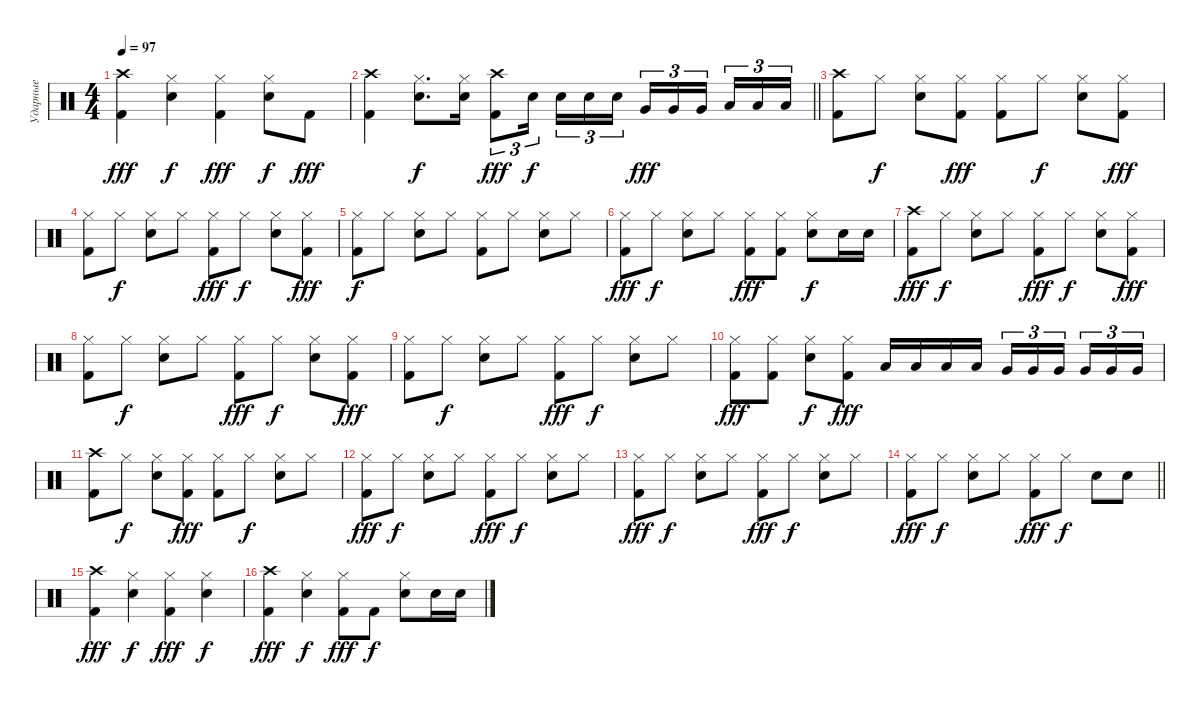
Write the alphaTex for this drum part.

\track ("Ударные" "Ударные") {instrument percussion}
\staff {score}
\articulation defaults
\ts (4 4)
\tempo 97
\clef neutral
\ks c
("Kick (hit) 2" "Crash high (hit)").4{dy fff} ("Snare (hit) 2" "Hi-Hat (closed)").4{dy f} ("Kick (hit) 2" "Hi-Hat (closed)").4{dy fff} ("Snare (hit) 2" "Hi-Hat (closed)").8{dy f} "Kick (hit) 2".8{dy fff} |
\barLineRight lightlight
("Kick (hit) 2" "Crash high (hit)").4 ("Snare (hit) 2" "Hi-Hat (closed)").8{d dy f} ("Snare (hit) 2" "Hi-Hat (closed)").16 ("Kick (hit) 2" "Crash high (hit)").8{tu (3 2) dy fff} "Snare (hit) 2".16{tu (3 2) dy f beam splitsecondary} "Snare (hit) 2".16{tu (3 2)} "Snare (hit) 2".16{tu (3 2)} "Snare (hit) 2".16{tu (3 2)} "Very Low Tom (hit)".16{tu (3 2) dy fff} "Very Low Tom (hit)".16{tu (3 2)} "Very Low Tom (hit)".16{tu (3 2) beam splitsecondary} "Low Floor Tom (hit)".16{tu (3 2)} "Low Floor Tom (hit)".16{tu (3 2)} "Low Floor Tom (hit)".16{tu (3 2)} |
("Kick (hit) 2" "Crash high (hit)").8 "Hi-Hat (closed)".8{dy f} ("Snare (hit) 2" "Hi-Hat (closed)").8 ("Kick (hit) 2" "Hi-Hat (closed)").8{dy fff} ("Kick (hit) 2" "Hi-Hat (closed)").8 "Hi-Hat (closed)".8{dy f} ("Snare (hit) 2" "Hi-Hat (closed)").8 ("Kick (hit) 2" "Hi-Hat (closed)").8{dy fff} |
("Kick (hit) 2" "Hi-Hat (closed)").8 "Hi-Hat (closed)".8{dy f} ("Snare (hit) 2" "Hi-Hat (closed)").8 "Hi-Hat (closed)".8 ("Kick (hit) 2" "Hi-Hat (closed)").8{dy fff} "Hi-Hat (closed)".8{dy f} ("Snare (hit) 2" "Hi-Hat (closed)").8 ("Kick (hit) 2" "Hi-Hat (closed)").8{dy fff} |
("Kick (hit) 2" "Hi-Hat (closed)").8{dy f} "Hi-Hat (closed)".8 ("Snare (hit) 2" "Hi-Hat (closed)").8 "Hi-Hat (closed)".8 ("Kick (hit) 2" "Hi-Hat (closed)").8 "Hi-Hat (closed)".8 ("Snare (hit) 2" "Hi-Hat (closed)").8 "Hi-Hat (closed)".8 |
("Kick (hit) 2" "Hi-Hat (closed)").8{dy fff} "Hi-Hat (closed)".8{dy f} ("Snare (hit) 2" "Hi-Hat (closed)").8 "Hi-Hat (closed)".8 ("Kick (hit) 2" "Hi-Hat (closed)").8{dy fff} ("Kick (hit) 2" "Hi-Hat (closed)").8 ("Snare (hit) 2" "Hi-Hat (closed)").8{dy f} "Snare (hit) 2".16 "Snare (hit) 2".16 |
("Kick (hit) 2" "Crash high (hit)").8{dy fff} "Hi-Hat (closed)".8{dy f} ("Snare (hit) 2" "Hi-Hat (closed)").8 "Hi-Hat (closed)".8 ("Kick (hit) 2" "Hi-Hat (closed)").8{dy fff} "Hi-Hat (closed)".8{dy f} ("Snare (hit) 2" "Hi-Hat (closed)").8 ("Kick (hit) 2" "Hi-Hat (closed)").8{dy fff} |
("Kick (hit) 2" "Hi-Hat (closed)").8 "Hi-Hat (closed)".8{dy f} ("Snare (hit) 2" "Hi-Hat (closed)").8 "Hi-Hat (closed)".8 ("Kick (hit) 2" "Hi-Hat (closed)").8{dy fff} "Hi-Hat (closed)".8{dy f} ("Snare (hit) 2" "Hi-Hat (closed)").8 ("Kick (hit) 2" "Hi-Hat (closed)").8{dy fff} |
("Kick (hit) 2" "Hi-Hat (closed)").8 "Hi-Hat (closed)".8{dy f} ("Snare (hit) 2" "Hi-Hat (closed)").8 "Hi-Hat (closed)".8 ("Kick (hit) 2" "Hi-Hat (closed)").8{dy fff} "Hi-Hat (closed)".8{dy f} ("Snare (hit) 2" "Hi-Hat (closed)").8 "Hi-Hat (closed)".8 |
("Kick (hit) 2" "Hi-Hat (closed)").8{dy fff} ("Kick (hit) 2" "Hi-Hat (closed)").8 ("Snare (hit) 2" "Hi-Hat (closed)").8{dy f} ("Kick (hit) 2" "Hi-Hat (closed)").8{dy fff} "Low Tom (hit)".16 "Low Tom (hit)".16 "Low Tom (hit)".16 "Low Tom (hit)".16 "Very Low Tom (hit)".16{tu (3 2)} "Very Low Tom (hit)".16{tu (3 2)} "Very Low Tom (hit)".16{tu (3 2) beam splitsecondary} "Very Low Tom (hit)".16{tu (3 2)} "Very Low Tom (hit)".16{tu (3 2)} "Very Low Tom (hit)".16{tu (3 2)} |
("Kick (hit) 2" "Crash high (hit)").8 "Hi-Hat (closed)".8{dy f} ("Snare (hit) 2" "Hi-Hat (closed)").8 ("Kick (hit) 2" "Hi-Hat (closed)").8{dy fff} ("Kick (hit) 2" "Hi-Hat (closed)").8 "Hi-Hat (closed)".8{dy f} ("Snare (hit) 2" "Hi-Hat (closed)").8 "Hi-Hat (closed)".8 |
("Kick (hit) 2" "Hi-Hat (closed)").8{dy fff} "Hi-Hat (closed)".8{dy f} ("Snare (hit) 2" "Hi-Hat (closed)").8 "Hi-Hat (closed)".8 ("Kick (hit) 2" "Hi-Hat (closed)").8{dy fff} "Hi-Hat (closed)".8{dy f} ("Snare (hit) 2" "Hi-Hat (closed)").8 "Hi-Hat (closed)".8 |
("Kick (hit) 2" "Hi-Hat (closed)").8{dy fff} "Hi-Hat (closed)".8{dy f} ("Snare (hit) 2" "Hi-Hat (closed)").8 "Hi-Hat (closed)".8 ("Kick (hit) 2" "Hi-Hat (closed)").8{dy fff} "Hi-Hat (closed)".8{dy f} ("Snare (hit) 2" "Hi-Hat (closed)").8 "Hi-Hat (closed)".8 |
\barLineRight lightlight
("Kick (hit) 2" "Hi-Hat (closed)").8{dy fff} "Hi-Hat (closed)".8{dy f} ("Snare (hit) 2" "Hi-Hat (closed)").8 "Hi-Hat (closed)".8 ("Kick (hit) 2" "Hi-Hat (closed)").8{dy fff} "Hi-Hat (closed)".8{dy f} "Snare (hit) 2".8 "Snare (hit) 2".8 |
("Kick (hit) 2" "Crash high (hit)").4{dy fff} ("Snare (hit) 2" "Hi-Hat (closed)").4{dy f} ("Kick (hit) 2" "Hi-Hat (closed)").4{dy fff} ("Snare (hit) 2" "Hi-Hat (closed)").4{dy f} |
("Kick (hit) 2" "Crash high (hit)").4{dy fff} ("Snare (hit) 2" "Hi-Hat (closed)").4{dy f} ("Kick (hit) 2" "Hi-Hat (closed)").8{dy fff} "Kick (hit) 2".8{dy f} ("Snare (hit) 2" "Hi-Hat (closed)").8 "Snare (hit) 2".16 "Snare (hit) 2".16
